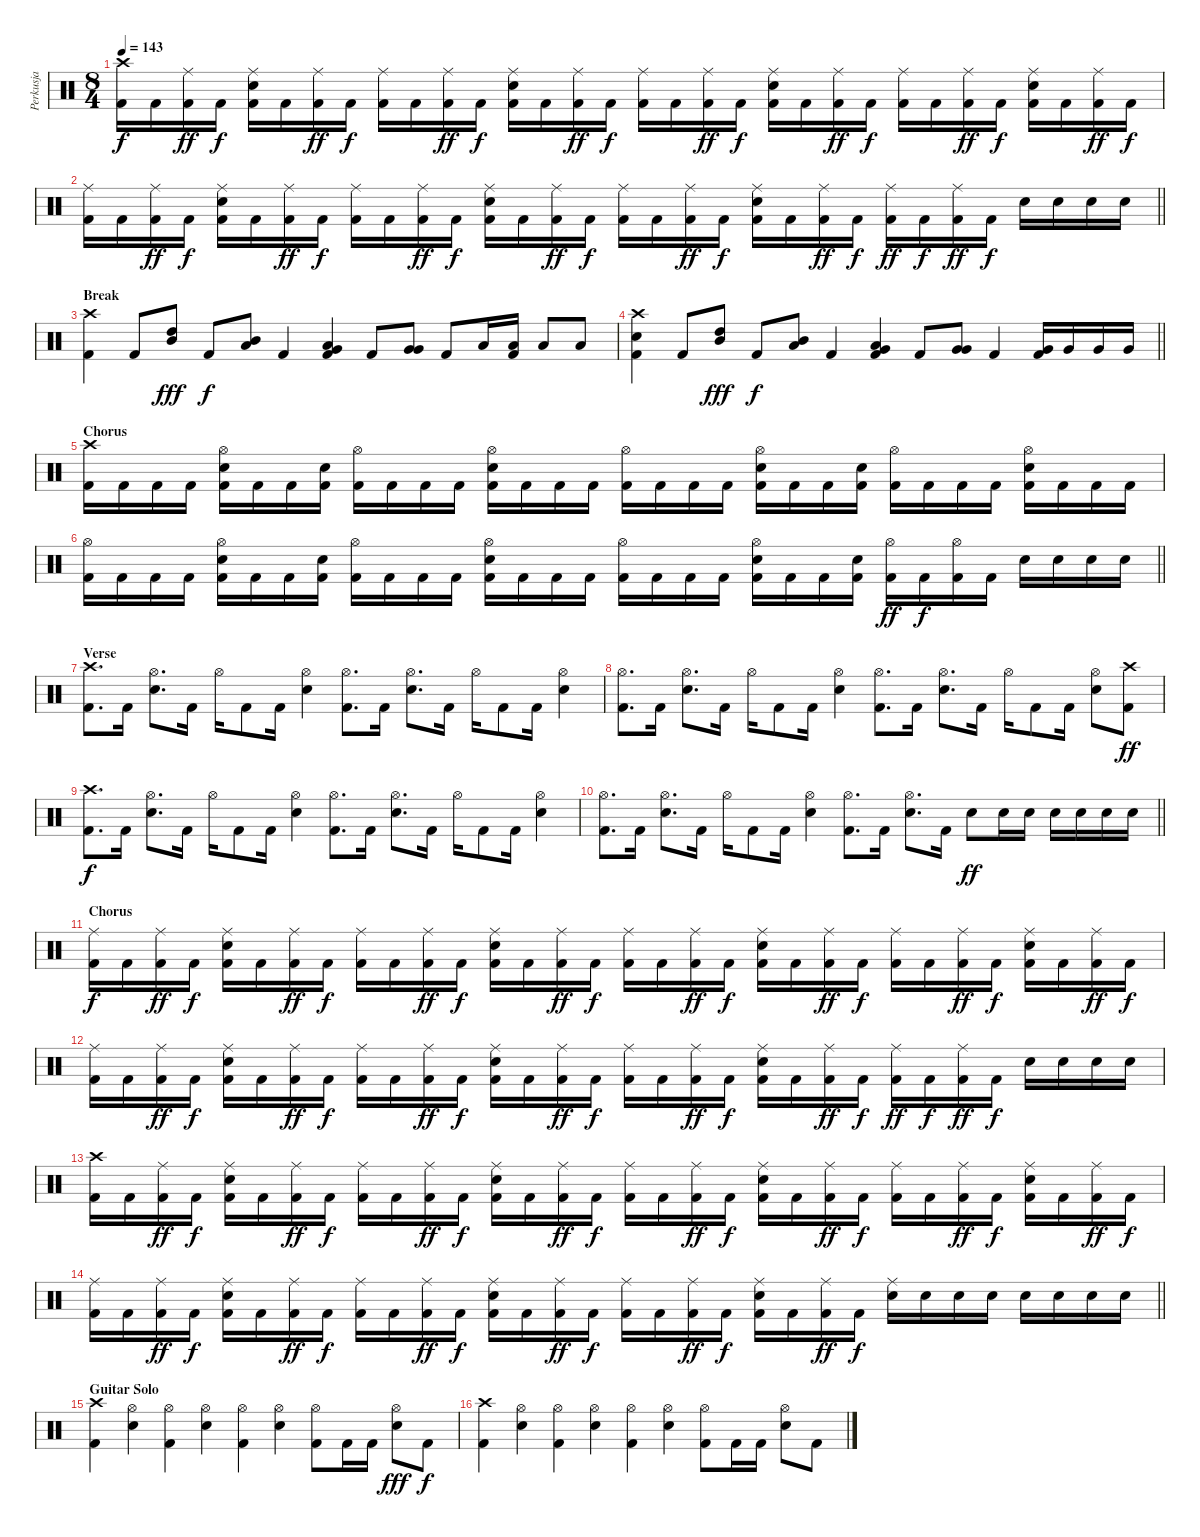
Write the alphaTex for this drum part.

\track ("Perkusja" "Perkusja") {instrument percussion}
\staff {score}
\articulation defaults
\ts (8 4)
\tempo 143
\clef neutral
\ks c
("Crash high (hit)" "Kick (hit) 2").16{dy f} "Kick (hit) 2".16 ("Ride (middle)" "Kick (hit) 2").16{dy ff} "Kick (hit) 2".16{dy f} ("Ride (middle)" "Snare (hit) 2" "Kick (hit) 2").16 "Kick (hit) 2".16 ("Ride (middle)" "Kick (hit) 2").16{dy ff} "Kick (hit) 2".16{dy f} ("Ride (middle)" "Kick (hit) 2").16 "Kick (hit) 2".16 ("Ride (middle)" "Kick (hit) 2").16{dy ff} "Kick (hit) 2".16{dy f} ("Ride (middle)" "Snare (hit) 2" "Kick (hit) 2").16 "Kick (hit) 2".16 ("Ride (middle)" "Kick (hit) 2").16{dy ff} "Kick (hit) 2".16{dy f} ("Ride (middle)" "Kick (hit) 2").16 "Kick (hit) 2".16 ("Ride (middle)" "Kick (hit) 2").16{dy ff} "Kick (hit) 2".16{dy f} ("Ride (middle)" "Snare (hit) 2" "Kick (hit) 2").16 "Kick (hit) 2".16 ("Ride (middle)" "Kick (hit) 2").16{dy ff} "Kick (hit) 2".16{dy f} ("Ride (middle)" "Kick (hit) 2").16 "Kick (hit) 2".16 ("Ride (middle)" "Kick (hit) 2").16{dy ff} "Kick (hit) 2".16{dy f} ("Ride (middle)" "Snare (hit) 2" "Kick (hit) 2").16 "Kick (hit) 2".16 ("Ride (middle)" "Kick (hit) 2").16{dy ff} "Kick (hit) 2".16{dy f} |
\barLineRight lightlight
("Ride (middle)" "Kick (hit) 2").16 "Kick (hit) 2".16 ("Ride (middle)" "Kick (hit) 2").16{dy ff} "Kick (hit) 2".16{dy f} ("Ride (middle)" "Snare (hit) 2" "Kick (hit) 2").16 "Kick (hit) 2".16 ("Ride (middle)" "Kick (hit) 2").16{dy ff} "Kick (hit) 2".16{dy f} ("Ride (middle)" "Kick (hit) 2").16 "Kick (hit) 2".16 ("Ride (middle)" "Kick (hit) 2").16{dy ff} "Kick (hit) 2".16{dy f} ("Ride (middle)" "Snare (hit) 2" "Kick (hit) 2").16 "Kick (hit) 2".16 ("Ride (middle)" "Kick (hit) 2").16{dy ff} "Kick (hit) 2".16{dy f} ("Ride (middle)" "Kick (hit) 2").16 "Kick (hit) 2".16 ("Ride (middle)" "Kick (hit) 2").16{dy ff} "Kick (hit) 2".16{dy f} ("Ride (middle)" "Snare (hit) 2" "Kick (hit) 2").16 "Kick (hit) 2".16 ("Ride (middle)" "Kick (hit) 2").16{dy ff} "Kick (hit) 2".16{dy f} ("Ride (middle)" "Kick (hit) 2").16{dy ff} "Kick (hit) 2".16{dy f} ("Ride (middle)" "Kick (hit) 2").16{dy ff} "Kick (hit) 2".16{dy f} "Snare (hit) 2".16 "Snare (hit) 2".16 "Snare (hit) 2".16 "Snare (hit) 2".16 |
\section ("" "Break")
("Crash high (hit)" "Kick (hit) 2").4 "Kick (hit) 2".8 ("High Tom (hit)" "Mid Tom (hit)").8{dy fff} "Kick (hit) 2".8{dy f} ("Mid Tom (hit)" "Low Tom (hit)").8 "Kick (hit) 2".4 ("Low Tom (hit)" "Very Low Tom (hit)" "Kick (hit) 2").4 "Kick (hit) 2".8 ("Very Low Tom (hit)" "Very Low Tom (hit)").8 "Kick (hit) 2".8 "Low Floor Tom (hit)".16 ("Low Floor Tom (hit)" "Kick (hit) 2").16 "Low Floor Tom (hit)".8 "Low Floor Tom (hit)".8 |
\barLineRight lightlight
("Crash high (hit)" "Snare (hit) 2" "Kick (hit) 2").4 "Kick (hit) 2".8 ("High Tom (hit)" "Mid Tom (hit)").8{dy fff} "Kick (hit) 2".8{dy f} ("Mid Tom (hit)" "Low Tom (hit)").8 "Kick (hit) 2".4 ("Low Tom (hit)" "Very Low Tom (hit)" "Kick (hit) 2").4 "Kick (hit) 2".8 ("Very Low Tom (hit)" "Very Low Tom (hit)").8 "Kick (hit) 2".4 ("Very Low Tom (hit)" "Kick (hit) 2").16 "Very Low Tom (hit)".16 "Very Low Tom (hit)".16 "Very Low Tom (hit)".16 |
\section ("" "Chorus")
("Crash high (hit)" "Kick (hit) 2").16 "Kick (hit) 2".16 "Kick (hit) 2".16 "Kick (hit) 2".16 ("Hi-Hat (open)" "Snare (hit) 2" "Kick (hit) 2").16 "Kick (hit) 2".16 "Kick (hit) 2".16 ("Snare (hit) 2" "Kick (hit) 2").16 ("Hi-Hat (open)" "Kick (hit) 2").16 "Kick (hit) 2".16 "Kick (hit) 2".16 "Kick (hit) 2".16 ("Hi-Hat (open)" "Snare (hit) 2" "Kick (hit) 2").16 "Kick (hit) 2".16 "Kick (hit) 2".16 "Kick (hit) 2".16 ("Hi-Hat (open)" "Kick (hit) 2").16 "Kick (hit) 2".16 "Kick (hit) 2".16 "Kick (hit) 2".16 ("Hi-Hat (open)" "Snare (hit) 2" "Kick (hit) 2").16 "Kick (hit) 2".16 "Kick (hit) 2".16 ("Snare (hit) 2" "Kick (hit) 2").16 ("Hi-Hat (open)" "Kick (hit) 2").16 "Kick (hit) 2".16 "Kick (hit) 2".16 "Kick (hit) 2".16 ("Hi-Hat (open)" "Snare (hit) 2" "Kick (hit) 2").16 "Kick (hit) 2".16 "Kick (hit) 2".16 "Kick (hit) 2".16 |
\barLineRight lightlight
("Hi-Hat (open)" "Kick (hit) 2").16 "Kick (hit) 2".16 "Kick (hit) 2".16 "Kick (hit) 2".16 ("Hi-Hat (open)" "Snare (hit) 2" "Kick (hit) 2").16 "Kick (hit) 2".16 "Kick (hit) 2".16 ("Snare (hit) 2" "Kick (hit) 2").16 ("Hi-Hat (open)" "Kick (hit) 2").16 "Kick (hit) 2".16 "Kick (hit) 2".16 "Kick (hit) 2".16 ("Hi-Hat (open)" "Snare (hit) 2" "Kick (hit) 2").16 "Kick (hit) 2".16 "Kick (hit) 2".16 "Kick (hit) 2".16 ("Hi-Hat (open)" "Kick (hit) 2").16 "Kick (hit) 2".16 "Kick (hit) 2".16 "Kick (hit) 2".16 ("Hi-Hat (open)" "Snare (hit) 2" "Kick (hit) 2").16 "Kick (hit) 2".16 "Kick (hit) 2".16 ("Snare (hit) 2" "Kick (hit) 2").16 ("Hi-Hat (open)" "Kick (hit) 2").16{dy ff} "Kick (hit) 2".16{dy f} ("Hi-Hat (open)" "Kick (hit) 2").16 "Kick (hit) 2".16 "Snare (hit) 2".16 "Snare (hit) 2".16 "Snare (hit) 2".16 "Snare (hit) 2".16 |
\section ("" "Verse")
("Crash high (hit)" "Kick (hit) 2").8{d} "Kick (hit) 2".16 ("Hi-Hat (open)" "Snare (hit) 2").8{d} "Kick (hit) 2".16 "Hi-Hat (open)".16 "Kick (hit) 2".8 "Kick (hit) 2".16 ("Hi-Hat (open)" "Snare (hit) 2").4 ("Hi-Hat (open)" "Kick (hit) 2").8{d} "Kick (hit) 2".16 ("Hi-Hat (open)" "Snare (hit) 2").8{d} "Kick (hit) 2".16 "Hi-Hat (open)".16 "Kick (hit) 2".8 "Kick (hit) 2".16 ("Hi-Hat (open)" "Snare (hit) 2").4 |
("Hi-Hat (open)" "Kick (hit) 2").8{d} "Kick (hit) 2".16 ("Hi-Hat (open)" "Snare (hit) 2").8{d} "Kick (hit) 2".16 "Hi-Hat (open)".16 "Kick (hit) 2".8 "Kick (hit) 2".16 ("Hi-Hat (open)" "Snare (hit) 2").4 ("Hi-Hat (open)" "Kick (hit) 2").8{d} "Kick (hit) 2".16 ("Hi-Hat (open)" "Snare (hit) 2").8{d} "Kick (hit) 2".16 "Hi-Hat (open)".16 "Kick (hit) 2".8 "Kick (hit) 2".16 ("Hi-Hat (open)" "Snare (hit) 2").8 ("Crash high (hit)" "Kick (hit) 2").8{dy ff} |
("Crash high (hit)" "Kick (hit) 2").8{d dy f} "Kick (hit) 2".16 ("Hi-Hat (open)" "Snare (hit) 2").8{d} "Kick (hit) 2".16 "Hi-Hat (open)".16 "Kick (hit) 2".8 "Kick (hit) 2".16 ("Hi-Hat (open)" "Snare (hit) 2").4 ("Hi-Hat (open)" "Kick (hit) 2").8{d} "Kick (hit) 2".16 ("Hi-Hat (open)" "Snare (hit) 2").8{d} "Kick (hit) 2".16 "Hi-Hat (open)".16 "Kick (hit) 2".8 "Kick (hit) 2".16 ("Hi-Hat (open)" "Snare (hit) 2").4 |
\barLineRight lightlight
("Hi-Hat (open)" "Kick (hit) 2").8{d} "Kick (hit) 2".16 ("Hi-Hat (open)" "Snare (hit) 2").8{d} "Kick (hit) 2".16 "Hi-Hat (open)".16 "Kick (hit) 2".8 "Kick (hit) 2".16 ("Hi-Hat (open)" "Snare (hit) 2").4 ("Hi-Hat (open)" "Kick (hit) 2").8{d} "Kick (hit) 2".16 ("Hi-Hat (open)" "Snare (hit) 2").8{d} "Kick (hit) 2".16 "Snare (hit) 2".8{dy ff} "Snare (hit) 2".16 "Snare (hit) 2".16 "Snare (hit) 2".16 "Snare (hit) 2".16 "Snare (hit) 2".16 "Snare (hit) 2".16 |
\section ("" "Chorus")
("Ride (middle)" "Kick (hit) 2").16{dy f} "Kick (hit) 2".16 ("Ride (middle)" "Kick (hit) 2").16{dy ff} "Kick (hit) 2".16{dy f} ("Ride (middle)" "Snare (hit) 2" "Kick (hit) 2").16 "Kick (hit) 2".16 ("Ride (middle)" "Kick (hit) 2").16{dy ff} "Kick (hit) 2".16{dy f} ("Ride (middle)" "Kick (hit) 2").16 "Kick (hit) 2".16 ("Ride (middle)" "Kick (hit) 2").16{dy ff} "Kick (hit) 2".16{dy f} ("Ride (middle)" "Snare (hit) 2" "Kick (hit) 2").16 "Kick (hit) 2".16 ("Ride (middle)" "Kick (hit) 2").16{dy ff} "Kick (hit) 2".16{dy f} ("Ride (middle)" "Kick (hit) 2").16 "Kick (hit) 2".16 ("Ride (middle)" "Kick (hit) 2").16{dy ff} "Kick (hit) 2".16{dy f} ("Ride (middle)" "Snare (hit) 2" "Kick (hit) 2").16 "Kick (hit) 2".16 ("Ride (middle)" "Kick (hit) 2").16{dy ff} "Kick (hit) 2".16{dy f} ("Ride (middle)" "Kick (hit) 2").16 "Kick (hit) 2".16 ("Ride (middle)" "Kick (hit) 2").16{dy ff} "Kick (hit) 2".16{dy f} ("Ride (middle)" "Snare (hit) 2" "Kick (hit) 2").16 "Kick (hit) 2".16 ("Ride (middle)" "Kick (hit) 2").16{dy ff} "Kick (hit) 2".16{dy f} |
("Ride (middle)" "Kick (hit) 2").16 "Kick (hit) 2".16 ("Ride (middle)" "Kick (hit) 2").16{dy ff} "Kick (hit) 2".16{dy f} ("Ride (middle)" "Snare (hit) 2" "Kick (hit) 2").16 "Kick (hit) 2".16 ("Ride (middle)" "Kick (hit) 2").16{dy ff} "Kick (hit) 2".16{dy f} ("Ride (middle)" "Kick (hit) 2").16 "Kick (hit) 2".16 ("Ride (middle)" "Kick (hit) 2").16{dy ff} "Kick (hit) 2".16{dy f} ("Ride (middle)" "Snare (hit) 2" "Kick (hit) 2").16 "Kick (hit) 2".16 ("Ride (middle)" "Kick (hit) 2").16{dy ff} "Kick (hit) 2".16{dy f} ("Ride (middle)" "Kick (hit) 2").16 "Kick (hit) 2".16 ("Ride (middle)" "Kick (hit) 2").16{dy ff} "Kick (hit) 2".16{dy f} ("Ride (middle)" "Snare (hit) 2" "Kick (hit) 2").16 "Kick (hit) 2".16 ("Ride (middle)" "Kick (hit) 2").16{dy ff} "Kick (hit) 2".16{dy f} ("Ride (middle)" "Kick (hit) 2").16{dy ff} "Kick (hit) 2".16{dy f} ("Ride (middle)" "Kick (hit) 2").16{dy ff} "Kick (hit) 2".16{dy f} "Snare (hit) 2".16 "Snare (hit) 2".16 "Snare (hit) 2".16 "Snare (hit) 2".16 |
("Crash high (hit)" "Kick (hit) 2").16 "Kick (hit) 2".16 ("Ride (middle)" "Kick (hit) 2").16{dy ff} "Kick (hit) 2".16{dy f} ("Ride (middle)" "Snare (hit) 2" "Kick (hit) 2").16 "Kick (hit) 2".16 ("Ride (middle)" "Kick (hit) 2").16{dy ff} "Kick (hit) 2".16{dy f} ("Ride (middle)" "Kick (hit) 2").16 "Kick (hit) 2".16 ("Ride (middle)" "Kick (hit) 2").16{dy ff} "Kick (hit) 2".16{dy f} ("Ride (middle)" "Snare (hit) 2" "Kick (hit) 2").16 "Kick (hit) 2".16 ("Ride (middle)" "Kick (hit) 2").16{dy ff} "Kick (hit) 2".16{dy f} ("Ride (middle)" "Kick (hit) 2").16 "Kick (hit) 2".16 ("Ride (middle)" "Kick (hit) 2").16{dy ff} "Kick (hit) 2".16{dy f} ("Ride (middle)" "Snare (hit) 2" "Kick (hit) 2").16 "Kick (hit) 2".16 ("Ride (middle)" "Kick (hit) 2").16{dy ff} "Kick (hit) 2".16{dy f} ("Ride (middle)" "Kick (hit) 2").16 "Kick (hit) 2".16 ("Ride (middle)" "Kick (hit) 2").16{dy ff} "Kick (hit) 2".16{dy f} ("Ride (middle)" "Snare (hit) 2" "Kick (hit) 2").16 "Kick (hit) 2".16 ("Ride (middle)" "Kick (hit) 2").16{dy ff} "Kick (hit) 2".16{dy f} |
\barLineRight lightlight
("Ride (middle)" "Kick (hit) 2").16 "Kick (hit) 2".16 ("Ride (middle)" "Kick (hit) 2").16{dy ff} "Kick (hit) 2".16{dy f} ("Ride (middle)" "Snare (hit) 2" "Kick (hit) 2").16 "Kick (hit) 2".16 ("Ride (middle)" "Kick (hit) 2").16{dy ff} "Kick (hit) 2".16{dy f} ("Ride (middle)" "Kick (hit) 2").16 "Kick (hit) 2".16 ("Ride (middle)" "Kick (hit) 2").16{dy ff} "Kick (hit) 2".16{dy f} ("Ride (middle)" "Snare (hit) 2" "Kick (hit) 2").16 "Kick (hit) 2".16 ("Ride (middle)" "Kick (hit) 2").16{dy ff} "Kick (hit) 2".16{dy f} ("Ride (middle)" "Kick (hit) 2").16 "Kick (hit) 2".16 ("Ride (middle)" "Kick (hit) 2").16{dy ff} "Kick (hit) 2".16{dy f} ("Ride (middle)" "Snare (hit) 2" "Kick (hit) 2").16 "Kick (hit) 2".16 ("Ride (middle)" "Kick (hit) 2").16{dy ff} "Kick (hit) 2".16{dy f} ("Ride (middle)" "Snare (hit) 2").16 "Snare (hit) 2".16 "Snare (hit) 2".16 "Snare (hit) 2".16 "Snare (hit) 2".16 "Snare (hit) 2".16 "Snare (hit) 2".16 "Snare (hit) 2".16 |
\section ("" "Guitar Solo")
("Crash high (hit)" "Kick (hit) 2").4 ("Hi-Hat (open)" "Snare (hit) 2").4 ("Hi-Hat (open)" "Kick (hit) 2").4 ("Hi-Hat (open)" "Snare (hit) 2").4 ("Hi-Hat (open)" "Kick (hit) 2").4 ("Hi-Hat (open)" "Snare (hit) 2").4 ("Hi-Hat (open)" "Kick (hit) 2").8 "Kick (hit) 2".16 "Kick (hit) 2".16 ("Hi-Hat (open)" "Snare (hit) 2").8{dy fff} "Kick (hit) 2".8{dy f} |
("Crash high (hit)" "Kick (hit) 2").4 ("Hi-Hat (open)" "Snare (hit) 2").4 ("Hi-Hat (open)" "Kick (hit) 2").4 ("Hi-Hat (open)" "Snare (hit) 2").4 ("Hi-Hat (open)" "Kick (hit) 2").4 ("Hi-Hat (open)" "Snare (hit) 2").4 ("Hi-Hat (open)" "Kick (hit) 2").8 "Kick (hit) 2".16 "Kick (hit) 2".16 ("Hi-Hat (open)" "Snare (hit) 2").8 "Kick (hit) 2".8
